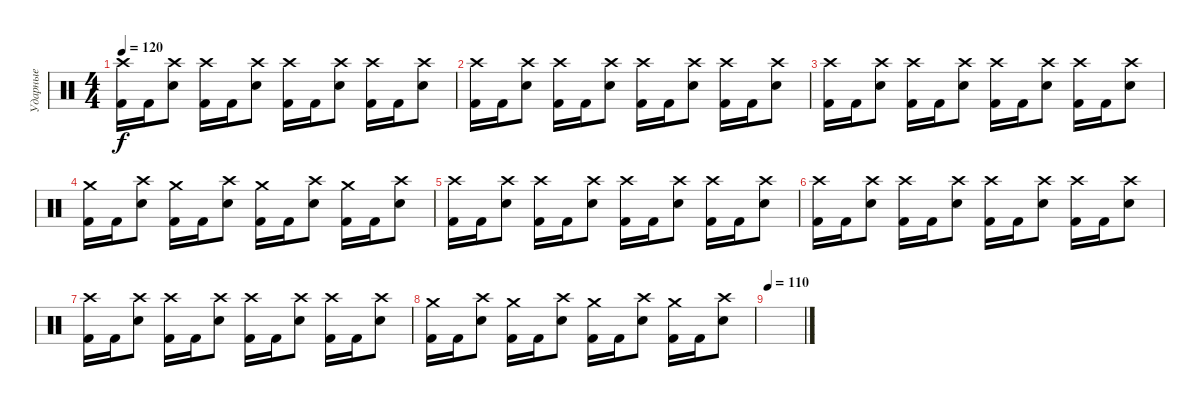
\track ("Ударные" "Ударные") {instrument percussion}
\staff {score}
\articulation defaults
\ts (4 4)
\tempo 120
\clef neutral
\ks c
("Crash high (hit)" "Kick (hit) 2").16{dy f} "Kick (hit) 2".16 ("Crash high (hit)" "Electric Snare (hit)").8 ("Crash high (hit)" "Kick (hit) 2").16 "Kick (hit) 2".16 ("Crash high (hit)" "Electric Snare (hit)").8 ("Crash high (hit)" "Kick (hit) 2").16 "Kick (hit) 2".16 ("Crash high (hit)" "Electric Snare (hit)").8 ("Crash high (hit)" "Kick (hit) 2").16 "Kick (hit) 2".16 ("Crash high (hit)" "Electric Snare (hit)").8 |
("Crash high (hit)" "Kick (hit) 2").16 "Kick (hit) 2".16 ("Crash high (hit)" "Electric Snare (hit)").8 ("Crash high (hit)" "Kick (hit) 2").16 "Kick (hit) 2".16 ("Crash high (hit)" "Electric Snare (hit)").8 ("Crash high (hit)" "Kick (hit) 2").16 "Kick (hit) 2".16 ("Crash high (hit)" "Electric Snare (hit)").8 ("Crash high (hit)" "Kick (hit) 2").16 "Kick (hit) 2".16 ("Crash high (hit)" "Electric Snare (hit)").8 |
("Crash high (hit)" "Kick (hit) 2").16 "Kick (hit) 2".16 ("Crash high (hit)" "Electric Snare (hit)").8 ("Crash high (hit)" "Kick (hit) 2").16 "Kick (hit) 2".16 ("Crash high (hit)" "Electric Snare (hit)").8 ("Crash high (hit)" "Kick (hit) 2").16 "Kick (hit) 2".16 ("Crash high (hit)" "Electric Snare (hit)").8 ("Crash high (hit)" "Kick (hit) 2").16 "Kick (hit) 2".16 ("Crash high (hit)" "Electric Snare (hit)").8 |
("Crash medium (hit)" "Kick (hit) 2").16 "Kick (hit) 2".16 ("Crash high (hit)" "Electric Snare (hit)").8 ("Crash medium (hit)" "Kick (hit) 2").16 "Kick (hit) 2".16 ("Crash high (hit)" "Electric Snare (hit)").8 ("Crash medium (hit)" "Kick (hit) 2").16 "Kick (hit) 2".16 ("Crash high (hit)" "Electric Snare (hit)").8 ("Crash medium (hit)" "Kick (hit) 2").16 "Kick (hit) 2".16 ("Crash high (hit)" "Electric Snare (hit)").8 |
("Crash high (hit)" "Kick (hit) 2").16 "Kick (hit) 2".16 ("Crash high (hit)" "Electric Snare (hit)").8 ("Crash high (hit)" "Kick (hit) 2").16 "Kick (hit) 2".16 ("Crash high (hit)" "Electric Snare (hit)").8 ("Crash high (hit)" "Kick (hit) 2").16 "Kick (hit) 2".16 ("Crash high (hit)" "Electric Snare (hit)").8 ("Crash high (hit)" "Kick (hit) 2").16 "Kick (hit) 2".16 ("Crash high (hit)" "Electric Snare (hit)").8 |
("Crash high (hit)" "Kick (hit) 2").16 "Kick (hit) 2".16 ("Crash high (hit)" "Electric Snare (hit)").8 ("Crash high (hit)" "Kick (hit) 2").16 "Kick (hit) 2".16 ("Crash high (hit)" "Electric Snare (hit)").8 ("Crash high (hit)" "Kick (hit) 2").16 "Kick (hit) 2".16 ("Crash high (hit)" "Electric Snare (hit)").8 ("Crash high (hit)" "Kick (hit) 2").16 "Kick (hit) 2".16 ("Crash high (hit)" "Electric Snare (hit)").8 |
("Crash high (hit)" "Kick (hit) 2").16 "Kick (hit) 2".16 ("Crash high (hit)" "Electric Snare (hit)").8 ("Crash high (hit)" "Kick (hit) 2").16 "Kick (hit) 2".16 ("Crash high (hit)" "Electric Snare (hit)").8 ("Crash high (hit)" "Kick (hit) 2").16 "Kick (hit) 2".16 ("Crash high (hit)" "Electric Snare (hit)").8 ("Crash high (hit)" "Kick (hit) 2").16 "Kick (hit) 2".16 ("Crash high (hit)" "Electric Snare (hit)").8 |
("Crash medium (hit)" "Kick (hit) 2").16 "Kick (hit) 2".16 ("Crash high (hit)" "Electric Snare (hit)").8 ("Crash medium (hit)" "Kick (hit) 2").16 "Kick (hit) 2".16 ("Crash high (hit)" "Electric Snare (hit)").8 ("Crash medium (hit)" "Kick (hit) 2").16 "Kick (hit) 2".16 ("Crash high (hit)" "Electric Snare (hit)").8 ("Crash medium (hit)" "Kick (hit) 2").16 "Kick (hit) 2".16 ("Crash high (hit)" "Electric Snare (hit)").8 |
\tempo 110
